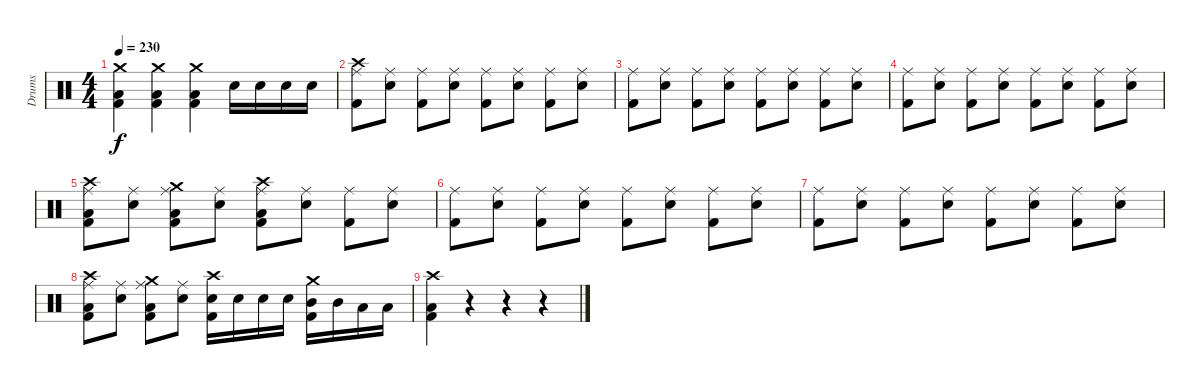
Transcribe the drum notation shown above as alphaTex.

\track ("Drums" "Drums") {instrument percussion}
\staff {score}
\articulation defaults
\ts (4 4)
\tempo 230
\clef neutral
\ks c
("Crash medium (hit)" "Low Floor Tom (hit)" "Kick (hit) 2").4{dy f} ("Crash medium (hit)" "Low Floor Tom (hit)" "Kick (hit) 2").4 ("Crash medium (hit)" "Low Floor Tom (hit)" "Kick (hit) 2").4 "Snare (hit) 2".16 "Snare (hit) 2".16 "Snare (hit) 2".16 "Snare (hit) 2".16 |
("Crash high (hit)" "Ride (middle)" "Kick (hit) 2").8 ("Ride (middle)" "Snare (hit) 2").8 ("Ride (middle)" "Kick (hit) 2").8 ("Ride (middle)" "Snare (hit) 2").8 ("Ride (middle)" "Kick (hit) 2").8 ("Ride (middle)" "Snare (hit) 2").8 ("Ride (middle)" "Kick (hit) 2").8 ("Ride (middle)" "Snare (hit) 2").8 |
("Ride (middle)" "Kick (hit) 2").8 ("Ride (middle)" "Snare (hit) 2").8 ("Ride (middle)" "Kick (hit) 2").8 ("Ride (middle)" "Snare (hit) 2").8 ("Ride (middle)" "Kick (hit) 2").8 ("Ride (middle)" "Snare (hit) 2").8 ("Ride (middle)" "Kick (hit) 2").8 ("Ride (middle)" "Snare (hit) 2").8 |
("Ride (middle)" "Kick (hit) 2").8 ("Ride (middle)" "Snare (hit) 2").8 ("Ride (middle)" "Kick (hit) 2").8 ("Ride (middle)" "Snare (hit) 2").8 ("Ride (middle)" "Kick (hit) 2").8 ("Ride (middle)" "Snare (hit) 2").8 ("Ride (middle)" "Kick (hit) 2").8 ("Ride (middle)" "Snare (hit) 2").8 |
("Crash high (hit)" "Ride (middle)" "Low Floor Tom (hit)" "Kick (hit) 2").8 ("Ride (middle)" "Snare (hit) 2").8 ("Crash medium (hit)" "Ride (middle)" "Low Floor Tom (hit)" "Kick (hit) 2").8 ("Ride (middle)" "Snare (hit) 2").8 ("Crash high (hit)" "Ride (middle)" "Low Floor Tom (hit)" "Kick (hit) 2").8 ("Ride (middle)" "Snare (hit) 2").8 ("Ride (middle)" "Kick (hit) 2").8 ("Ride (middle)" "Snare (hit) 2").8 |
("Ride (middle)" "Kick (hit) 2").8 ("Ride (middle)" "Snare (hit) 2").8 ("Ride (middle)" "Kick (hit) 2").8 ("Ride (middle)" "Snare (hit) 2").8 ("Ride (middle)" "Kick (hit) 2").8 ("Ride (middle)" "Snare (hit) 2").8 ("Ride (middle)" "Kick (hit) 2").8 ("Ride (middle)" "Snare (hit) 2").8 |
("Ride (middle)" "Kick (hit) 2").8 ("Ride (middle)" "Snare (hit) 2").8 ("Ride (middle)" "Kick (hit) 2").8 ("Ride (middle)" "Snare (hit) 2").8 ("Ride (middle)" "Kick (hit) 2").8 ("Ride (middle)" "Snare (hit) 2").8 ("Ride (middle)" "Kick (hit) 2").8 ("Ride (middle)" "Snare (hit) 2").8 |
("Crash high (hit)" "Ride (middle)" "Low Floor Tom (hit)" "Kick (hit) 2").8 ("Ride (middle)" "Snare (hit) 2").8 ("Crash medium (hit)" "Ride (middle)" "Low Floor Tom (hit)" "Kick (hit) 2").8 ("Ride (middle)" "Snare (hit) 2").8 ("Crash high (hit)" "Snare (hit) 2" "Kick (hit) 2").16 "Snare (hit) 2".16 "Snare (hit) 2".16 "Snare (hit) 2".16 ("Crash medium (hit)" "Mid Tom (hit)" "Kick (hit) 2").16 "Mid Tom (hit)".16 "Low Tom (hit)".16 "Low Tom (hit)".16 |
("Crash high (hit)" "Low Floor Tom (hit)" "Kick (hit) 2").4 r.4 r.4 r.4
